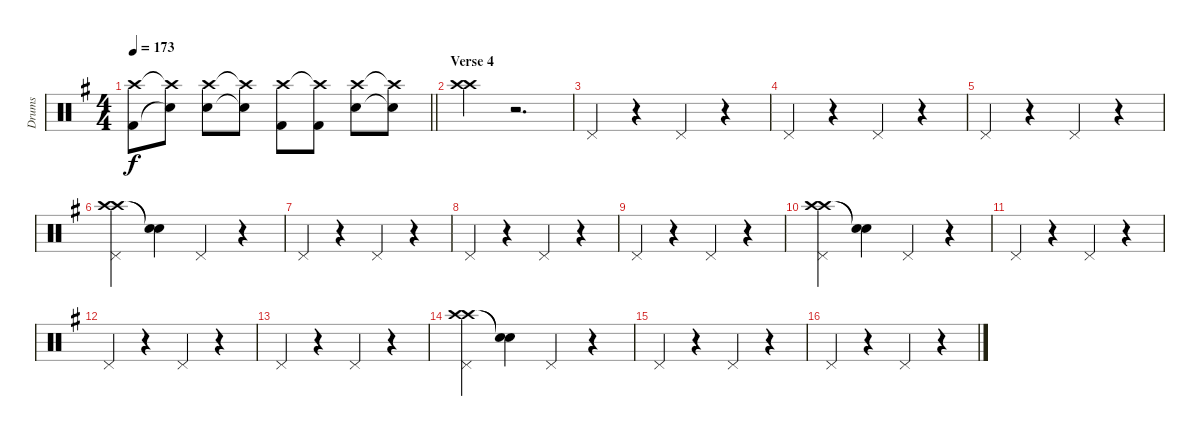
\track ("Drums" "Drums") {instrument percussion}
\staff {score}
\articulation defaults
\ts (4 4)
\tempo 173
\clef neutral
\barLineRight lightlight
\ks g
("Kick (hit) 2" "Crash high (hit)").8{dy f} ("Snare (hit)"{t} "Crash high (hit)"{t}).8 ("Snare (hit) 2" "Crash high (hit)").8 ("Snare (hit)"{t} "Crash high (hit)"{t}).8 ("Kick (hit) 2" "Crash high (hit)").8 ("Kick (hit) 2" "Crash high (hit)"{t}).8 ("Snare (hit) 2" "Crash high (hit)").8 ("Snare (hit)"{t} "Crash high (hit)"{t}).8 |
\section ("" "Verse 4")
("Crash high (hit)" "Crash high (hit)").4 r.2{d} |
"Pedal Hi-Hat (hit)".4 r.4 "Pedal Hi-Hat (hit)".4 r.4 |
"Pedal Hi-Hat (hit)".4 r.4 "Pedal Hi-Hat (hit)".4 r.4 |
"Pedal Hi-Hat (hit)".4 r.4 "Pedal Hi-Hat (hit)".4 r.4 |
("Crash high (hit)" "Crash high (hit)" "Pedal Hi-Hat (hit)").4 ("Snare (hit)"{t} "Snare (hit)"{t}).4 "Pedal Hi-Hat (hit)".4 r.4 |
"Pedal Hi-Hat (hit)".4 r.4 "Pedal Hi-Hat (hit)".4 r.4 |
"Pedal Hi-Hat (hit)".4 r.4 "Pedal Hi-Hat (hit)".4 r.4 |
"Pedal Hi-Hat (hit)".4 r.4 "Pedal Hi-Hat (hit)".4 r.4 |
("Crash high (hit)" "Crash high (hit)" "Pedal Hi-Hat (hit)").4 ("Snare (hit)"{t} "Snare (hit)"{t}).4 "Pedal Hi-Hat (hit)".4 r.4 |
"Pedal Hi-Hat (hit)".4 r.4 "Pedal Hi-Hat (hit)".4 r.4 |
"Pedal Hi-Hat (hit)".4 r.4 "Pedal Hi-Hat (hit)".4 r.4 |
"Pedal Hi-Hat (hit)".4 r.4 "Pedal Hi-Hat (hit)".4 r.4 |
("Crash high (hit)" "Crash high (hit)" "Pedal Hi-Hat (hit)").4 ("Snare (hit)"{t} "Snare (hit)"{t}).4 "Pedal Hi-Hat (hit)".4 r.4 |
"Pedal Hi-Hat (hit)".4 r.4 "Pedal Hi-Hat (hit)".4 r.4 |
"Pedal Hi-Hat (hit)".4 r.4 "Pedal Hi-Hat (hit)".4 r.4
